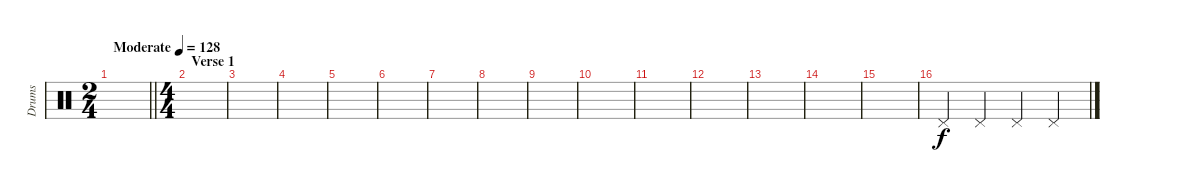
\track ("Drums" "Drums") {instrument percussion}
\staff {score}
\articulation defaults
\ts (2 4)
\tempo (128 "Moderate")
\clef neutral
\barLineRight lightlight
\ks c
|
\ts (4 4)
\section ("" "Verse 1")
|
|
|
|
|
|
|
|
|
|
|
|
|
|
"Pedal Hi-Hat (hit)".4 "Pedal Hi-Hat (hit)".4 "Pedal Hi-Hat (hit)".4 "Pedal Hi-Hat (hit)".4
